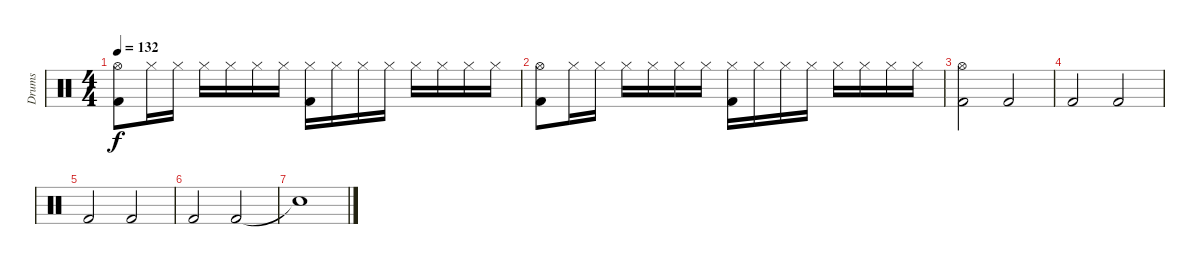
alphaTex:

\track ("Drums" "Drums") {instrument percussion}
\staff {score}
\articulation defaults
\ts (4 4)
\tempo 132
\clef neutral
\ks c
("Hi-Hat (open)" "Kick (hit) 2").8{dy f} "Hi-Hat (closed)".16 "Hi-Hat (closed)".16 "Hi-Hat (closed)".16 "Hi-Hat (closed)".16 "Hi-Hat (closed)".16 "Hi-Hat (closed)".16 ("Hi-Hat (closed)" "Kick (hit) 2").16 "Hi-Hat (closed)".16 "Hi-Hat (closed)".16 "Hi-Hat (closed)".16 "Hi-Hat (closed)".16 "Hi-Hat (closed)".16 "Hi-Hat (closed)".16 "Hi-Hat (closed)".16 |
("Hi-Hat (open)" "Kick (hit) 2").8 "Hi-Hat (closed)".16 "Hi-Hat (closed)".16 "Hi-Hat (closed)".16 "Hi-Hat (closed)".16 "Hi-Hat (closed)".16 "Hi-Hat (closed)".16 ("Hi-Hat (closed)" "Kick (hit) 2").16 "Hi-Hat (closed)".16 "Hi-Hat (closed)".16 "Hi-Hat (closed)".16 "Hi-Hat (closed)".16 "Hi-Hat (closed)".16 "Hi-Hat (closed)".16 "Hi-Hat (closed)".16 |
("Hi-Hat (open)" "Kick (hit) 2").2 "Kick (hit) 2".2 |
"Kick (hit) 2".2 "Kick (hit) 2".2 |
"Kick (hit) 2".2 "Kick (hit) 2".2 |
"Kick (hit) 2".2 "Kick (hit) 2".2 |
"Snare (hit)"{t}.1
